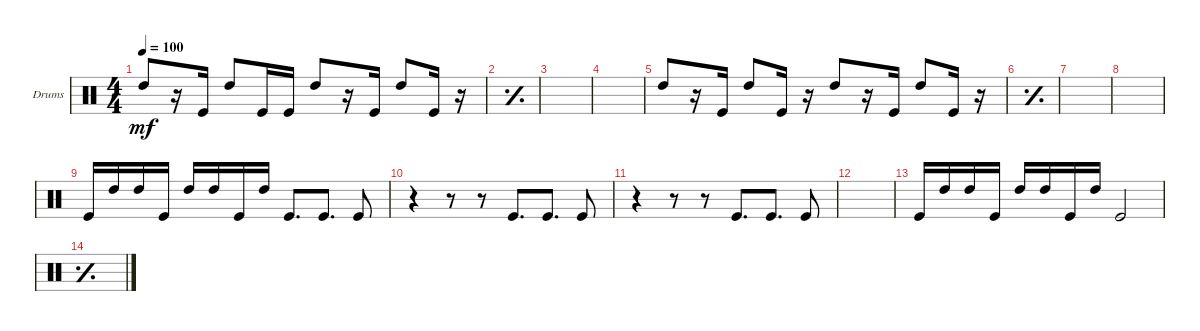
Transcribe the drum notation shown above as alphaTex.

\bracketExtendMode groupsimilarinstruments
\firstSystemTrackNameOrientation horizontal
\otherSystemsTrackNameOrientation horizontal
\track ("Drumkit" "Drums") {instrument percussion}
\staff {score}
\articulation defaults
\ts (4 4)
\tempo 100
\clef neutral
\scale
0.333333
\ks c "High Tom (hit)".8{dy mf}
r.16 "Kick (hit)".16 "High Tom (hit)".8 "Kick (hit)".16 "Kick (hit)".16 "High Tom (hit)".8 r.16 "Kick (hit)".16 "High Tom (hit)".8 "Kick (hit)".16 r.16 |
\simile simple
\scale
0.333333 |
\simile none
|
\scale
0.333333 |
\scale
0.333333 "High Tom (hit)".8 r.16 "Kick (hit)".16 "High Tom (hit)".8 "Kick (hit)".16 r.16 "High Tom (hit)".8 r.16 "Kick (hit)".16 "High Tom (hit)".8 "Kick (hit)".16 r.16 |
\simile simple
\scale
0.333333 |
\simile none
|
\scale
0.333333 |
\scale
0.333333 "Kick (hit)".16 "High Tom (hit)".16 "High Tom (hit)".16 "Kick (hit)".16 "High Tom (hit)".16 "High Tom (hit)".16 "Kick (hit)".16 "High Tom (hit)".16 "Kick (hit)".8{d} "Kick (hit)".8{d} "Kick (hit)".8 |
\scale
0.333333 r.4 r.8 r.8 "Kick (hit)".8{d} "Kick (hit)".8{d} "Kick (hit)".8 |
\scale
0.333333 r.4 r.8 r.8 "Kick (hit)".8{d} "Kick (hit)".8{d} "Kick (hit)".8 |
|
\scale
0.333333 "Kick (hit)".16 "High Tom (hit)".16 "High Tom (hit)".16 "Kick (hit)".16 "High Tom (hit)".16 "High Tom (hit)".16 "Kick (hit)".16 "High Tom (hit)".16 "Kick (hit)".2 |
\simile simple
\scale
0.333333 |
\simile none
|
\scale
0.333333
